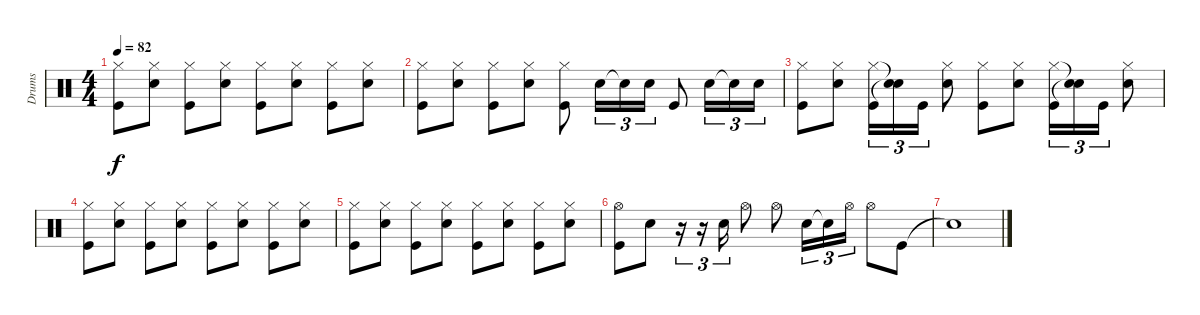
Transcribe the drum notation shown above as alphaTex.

\track ("Drums" "Drums") {instrument percussion}
\staff {score}
\articulation defaults
\ts (4 4)
\tempo 82
\clef neutral
\ks c
("Hi-Hat (closed)" "Kick (hit)").8{dy f} ("Hi-Hat (closed)" "Snare (hit) 2").8 ("Hi-Hat (closed)" "Kick (hit)").8 ("Hi-Hat (closed)" "Snare (hit) 2").8 ("Hi-Hat (closed)" "Kick (hit)").8 ("Hi-Hat (closed)" "Snare (hit) 2").8 ("Hi-Hat (closed)" "Kick (hit)").8 ("Hi-Hat (closed)" "Snare (hit) 2").8 |
("Hi-Hat (closed)" "Kick (hit)").8 ("Hi-Hat (closed)" "Snare (hit) 2").8 ("Hi-Hat (closed)" "Kick (hit)").8 ("Hi-Hat (closed)" "Snare (hit) 2").8 ("Hi-Hat (closed)" "Kick (hit)").8 "Snare (hit) 2".16{tu (3 2)} "Snare (hit)"{t}.16{tu (3 2)} "Snare (hit) 2".16{tu (3 2)} "Kick (hit)".8 "Snare (hit) 2".16{tu (3 2)} "Snare (hit)"{t}.16{tu (3 2)} "Snare (hit) 2".16{tu (3 2)} |
("Hi-Hat (closed)" "Kick (hit)").8 ("Hi-Hat (closed)" "Snare (hit) 2").8 ("Hi-Hat (closed)" "Kick (hit)").16{tu (3 2)} ("Snare (hit)"{t} "Snare (hit)"{t}).16{tu (3 2)} "Kick (hit)".16{tu (3 2)} ("Hi-Hat (closed)" "Snare (hit) 2").8 ("Hi-Hat (closed)" "Kick (hit)").8 ("Hi-Hat (closed)" "Snare (hit) 2").8 ("Hi-Hat (closed)" "Kick (hit)").16{tu (3 2)} ("Snare (hit)"{t} "Snare (hit)"{t}).16{tu (3 2)} "Kick (hit)".16{tu (3 2)} ("Hi-Hat (closed)" "Snare (hit) 2").8 |
("Hi-Hat (closed)" "Kick (hit)").8 ("Hi-Hat (closed)" "Snare (hit) 2").8 ("Hi-Hat (closed)" "Kick (hit)").8 ("Hi-Hat (closed)" "Snare (hit) 2").8 ("Hi-Hat (closed)" "Kick (hit)").8 ("Hi-Hat (closed)" "Snare (hit) 2").8 ("Hi-Hat (closed)" "Kick (hit)").8 ("Hi-Hat (closed)" "Snare (hit) 2").8 |
("Hi-Hat (closed)" "Kick (hit)").8 ("Hi-Hat (closed)" "Snare (hit) 2").8 ("Hi-Hat (closed)" "Kick (hit)").8 ("Hi-Hat (closed)" "Snare (hit) 2").8 ("Hi-Hat (closed)" "Kick (hit)").8 ("Hi-Hat (closed)" "Snare (hit) 2").8 ("Hi-Hat (closed)" "Kick (hit)").8 ("Hi-Hat (closed)" "Snare (hit) 2").8 |
("Hi-Hat (open)" "Kick (hit)").8 "Snare (hit) 2".8 r.16{tu (3 2)} r.16{tu (3 2)} "Snare (hit) 2".16{tu (3 2)} "Hi-Hat (open)".8 "Hi-Hat (open)".8 "Snare (hit) 2".16{tu (3 2)} "Snare (hit)"{t}.16{tu (3 2)} "Hi-Hat (open)".16{tu (3 2)} "Hi-Hat (open)".8 "Kick (hit)".8 |
"Snare (hit)"{t}.1
